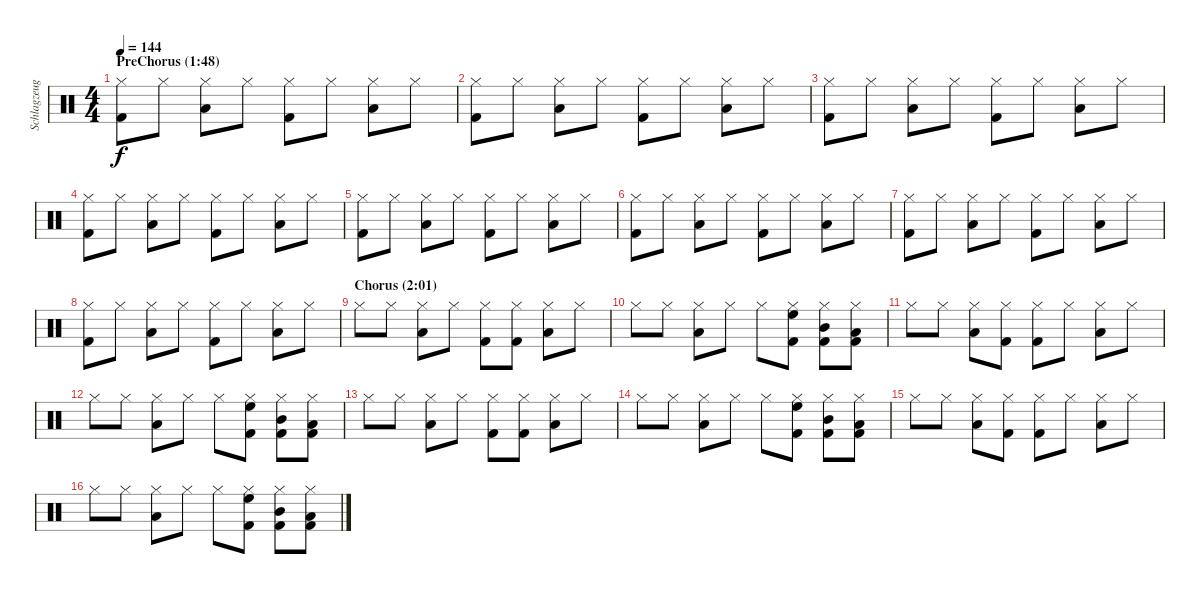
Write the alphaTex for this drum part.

\track ("Schlagzeug" "Schlagzeug") {instrument percussion}
\staff {score}
\articulation defaults
\ts (4 4)
\section ("" "PreChorus (1:48)")
\tempo 144
\clef neutral
\ks c
("Hi-Hat (closed)" "Kick (hit) 2").8{dy f} "Hi-Hat (closed)".8 ("Hi-Hat (closed)" "Low Tom (hit)").8 "Hi-Hat (closed)".8 ("Hi-Hat (closed)" "Kick (hit) 2").8 "Hi-Hat (closed)".8 ("Hi-Hat (closed)" "Low Tom (hit)").8 "Hi-Hat (closed)".8 |
("Hi-Hat (closed)" "Kick (hit) 2").8 "Hi-Hat (closed)".8 ("Hi-Hat (closed)" "Low Tom (hit)").8 "Hi-Hat (closed)".8 ("Hi-Hat (closed)" "Kick (hit) 2").8 "Hi-Hat (closed)".8 ("Hi-Hat (closed)" "Low Tom (hit)").8 "Hi-Hat (closed)".8 |
("Hi-Hat (closed)" "Kick (hit) 2").8 "Hi-Hat (closed)".8 ("Hi-Hat (closed)" "Low Tom (hit)").8 "Hi-Hat (closed)".8 ("Hi-Hat (closed)" "Kick (hit) 2").8 "Hi-Hat (closed)".8 ("Hi-Hat (closed)" "Low Tom (hit)").8 "Hi-Hat (closed)".8 |
("Hi-Hat (closed)" "Kick (hit) 2").8 "Hi-Hat (closed)".8 ("Hi-Hat (closed)" "Low Tom (hit)").8 "Hi-Hat (closed)".8 ("Hi-Hat (closed)" "Kick (hit) 2").8 "Hi-Hat (closed)".8 ("Hi-Hat (closed)" "Low Tom (hit)").8 "Hi-Hat (closed)".8 |
("Hi-Hat (closed)" "Kick (hit) 2").8 "Hi-Hat (closed)".8 ("Hi-Hat (closed)" "Low Tom (hit)").8 "Hi-Hat (closed)".8 ("Hi-Hat (closed)" "Kick (hit) 2").8 "Hi-Hat (closed)".8 ("Hi-Hat (closed)" "Low Tom (hit)").8 "Hi-Hat (closed)".8 |
("Hi-Hat (closed)" "Kick (hit) 2").8 "Hi-Hat (closed)".8 ("Hi-Hat (closed)" "Low Tom (hit)").8 "Hi-Hat (closed)".8 ("Hi-Hat (closed)" "Kick (hit) 2").8 "Hi-Hat (closed)".8 ("Hi-Hat (closed)" "Low Tom (hit)").8 "Hi-Hat (closed)".8 |
("Hi-Hat (closed)" "Kick (hit) 2").8 "Hi-Hat (closed)".8 ("Hi-Hat (closed)" "Low Tom (hit)").8 "Hi-Hat (closed)".8 ("Hi-Hat (closed)" "Kick (hit) 2").8 "Hi-Hat (closed)".8 ("Hi-Hat (closed)" "Low Tom (hit)").8 "Hi-Hat (closed)".8 |
("Hi-Hat (closed)" "Kick (hit) 2").8 "Hi-Hat (closed)".8 ("Hi-Hat (closed)" "Low Tom (hit)").8 "Hi-Hat (closed)".8 ("Hi-Hat (closed)" "Kick (hit) 2").8 "Hi-Hat (closed)".8 ("Hi-Hat (closed)" "Low Tom (hit)").8 "Hi-Hat (closed)".8 |
\section ("" "Chorus (2:01)")
"Hi-Hat (closed)".8 "Hi-Hat (closed)".8 ("Hi-Hat (closed)" "Low Tom (hit)").8 "Hi-Hat (closed)".8 ("Hi-Hat (closed)" "Kick (hit) 2").8 ("Hi-Hat (closed)" "Kick (hit) 2").8 ("Hi-Hat (closed)" "Low Tom (hit)").8 "Hi-Hat (closed)".8 |
"Hi-Hat (closed)".8 "Hi-Hat (closed)".8 ("Hi-Hat (closed)" "Low Tom (hit)").8 "Hi-Hat (closed)".8 "Hi-Hat (closed)".8 ("Hi-Hat (closed)" "High Floor Tom (hit)" "Kick (hit) 2").8 ("Hi-Hat (closed)" "Mid Tom (hit)" "Kick (hit) 2").8 ("Hi-Hat (closed)" "Low Tom (hit)" "Kick (hit) 2").8 |
"Hi-Hat (closed)".8 "Hi-Hat (closed)".8 ("Hi-Hat (closed)" "Low Tom (hit)").8 ("Hi-Hat (closed)" "Kick (hit) 2").8 ("Hi-Hat (closed)" "Kick (hit) 2").8 "Hi-Hat (closed)".8 ("Hi-Hat (closed)" "Low Tom (hit)").8 "Hi-Hat (closed)".8 |
"Hi-Hat (closed)".8 "Hi-Hat (closed)".8 ("Hi-Hat (closed)" "Low Tom (hit)").8 "Hi-Hat (closed)".8 "Hi-Hat (closed)".8 ("Hi-Hat (closed)" "High Floor Tom (hit)" "Kick (hit) 2").8 ("Hi-Hat (closed)" "Mid Tom (hit)" "Kick (hit) 2").8 ("Hi-Hat (closed)" "Low Tom (hit)" "Kick (hit) 2").8 |
"Hi-Hat (closed)".8 "Hi-Hat (closed)".8 ("Hi-Hat (closed)" "Low Tom (hit)").8 "Hi-Hat (closed)".8 ("Hi-Hat (closed)" "Kick (hit) 2").8 ("Hi-Hat (closed)" "Kick (hit) 2").8 ("Hi-Hat (closed)" "Low Tom (hit)").8 "Hi-Hat (closed)".8 |
"Hi-Hat (closed)".8 "Hi-Hat (closed)".8 ("Hi-Hat (closed)" "Low Tom (hit)").8 "Hi-Hat (closed)".8 "Hi-Hat (closed)".8 ("Hi-Hat (closed)" "High Floor Tom (hit)" "Kick (hit) 2").8 ("Hi-Hat (closed)" "Mid Tom (hit)" "Kick (hit) 2").8 ("Hi-Hat (closed)" "Low Tom (hit)" "Kick (hit) 2").8 |
"Hi-Hat (closed)".8 "Hi-Hat (closed)".8 ("Hi-Hat (closed)" "Low Tom (hit)").8 ("Hi-Hat (closed)" "Kick (hit) 2").8 ("Hi-Hat (closed)" "Kick (hit) 2").8 "Hi-Hat (closed)".8 ("Hi-Hat (closed)" "Low Tom (hit)").8 "Hi-Hat (closed)".8 |
"Hi-Hat (closed)".8 "Hi-Hat (closed)".8 ("Hi-Hat (closed)" "Low Tom (hit)").8 "Hi-Hat (closed)".8 "Hi-Hat (closed)".8 ("Hi-Hat (closed)" "High Floor Tom (hit)" "Kick (hit) 2").8 ("Hi-Hat (closed)" "Mid Tom (hit)" "Kick (hit) 2").8 ("Hi-Hat (closed)" "Low Tom (hit)" "Kick (hit) 2").8
